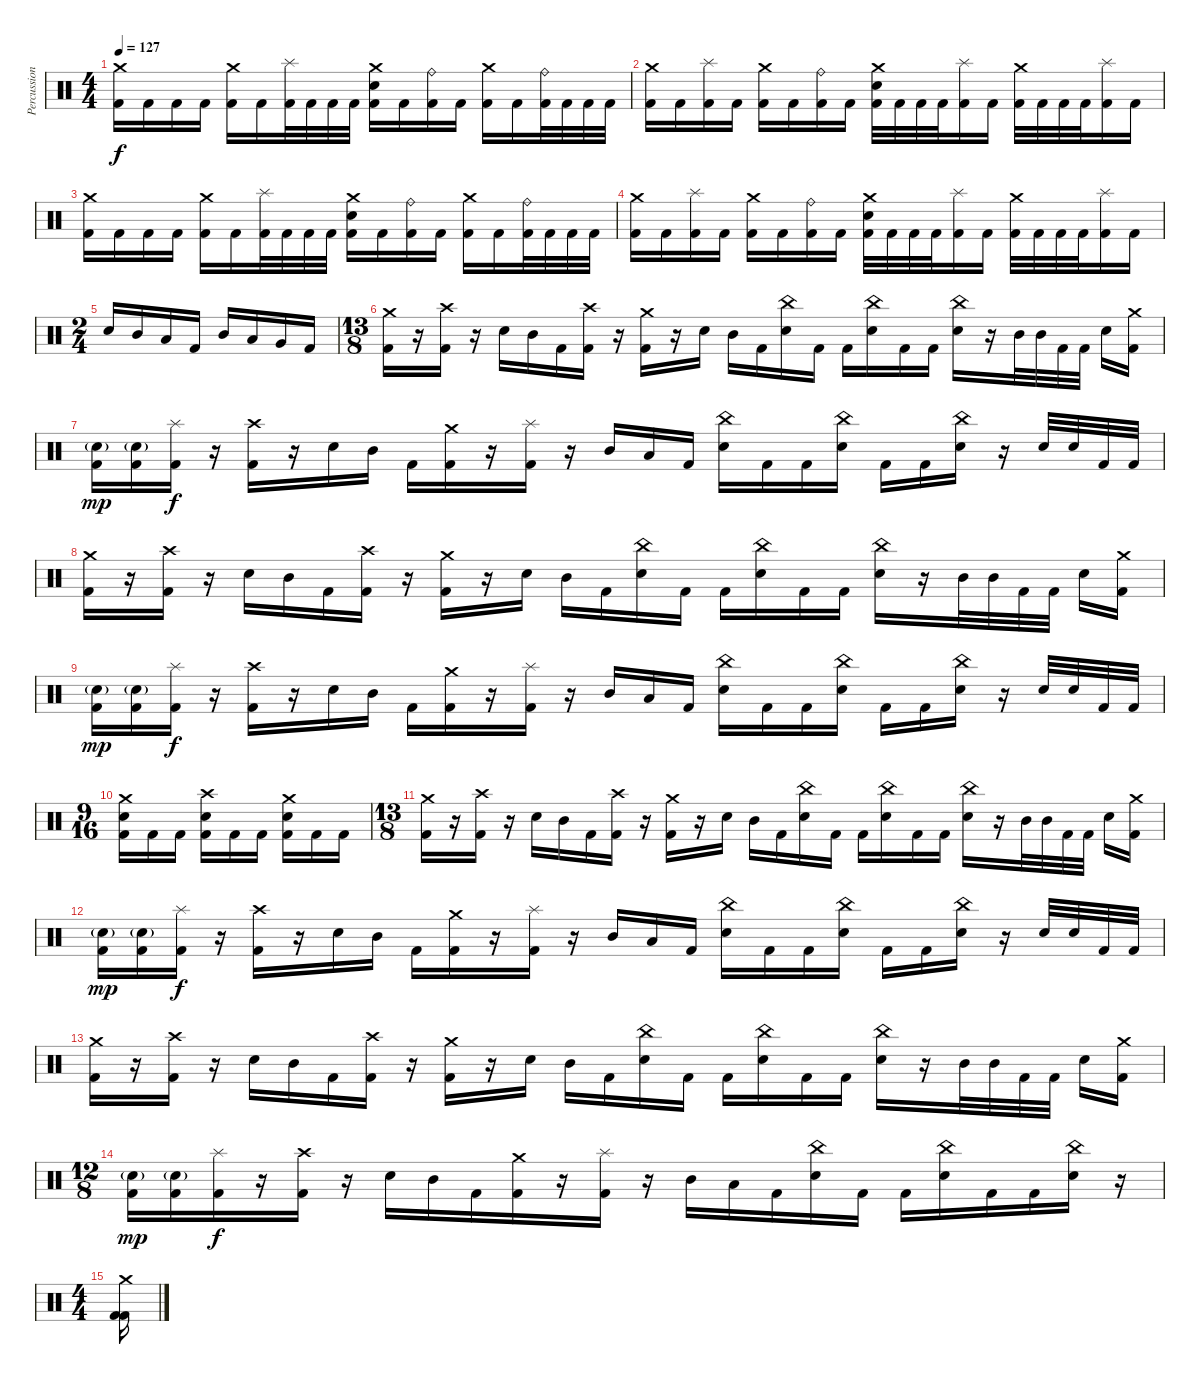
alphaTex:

\track ("Percussion" "Percussion") {instrument percussion}
\staff {score}
\articulation defaults
\ts (4 4)
\tempo 127
\clef neutral
\ks c
("Crash medium (hit)" "Kick (hit) 2").16{dy f} "Kick (hit) 2".16 "Kick (hit) 2".16 "Kick (hit) 2".16 ("Crash medium (hit)" "Kick (hit) 2").16 "Kick (hit) 2".16 ("Splash (hit)" "Kick (hit) 2").32 "Kick (hit) 2".32 "Kick (hit) 2".32 "Kick (hit) 2".32 ("Crash medium (hit)" "Electric Snare (hit)" "Kick (hit) 2").16 "Kick (hit) 2".16 ("Ride (bell)" "Kick (hit) 2").16 "Kick (hit) 2".16 ("Crash medium (hit)" "Kick (hit) 2").16 "Kick (hit) 2".16 ("Ride (bell)" "Kick (hit) 2").32 "Kick (hit) 2".32 "Kick (hit) 2".32 "Kick (hit) 2".32 |
("Crash medium (hit)" "Kick (hit) 2").16 "Kick (hit) 2".16 ("Splash (hit)" "Kick (hit) 2").16 "Kick (hit) 2".16 ("Crash medium (hit)" "Kick (hit) 2").16 "Kick (hit) 2".16 ("Ride (bell)" "Kick (hit) 2").16 "Kick (hit) 2".16 ("Crash medium (hit)" "Electric Snare (hit)" "Kick (hit) 2").32 "Kick (hit) 2".32 "Kick (hit) 2".32 "Kick (hit) 2".32 ("Splash (hit)" "Kick (hit) 2").16 "Kick (hit) 2".16 ("Crash medium (hit)" "Kick (hit) 2").32 "Kick (hit) 2".32 "Kick (hit) 2".32 "Kick (hit) 2".32 ("Splash (hit)" "Kick (hit) 2").16 "Kick (hit) 2".16 |
("Crash medium (hit)" "Kick (hit) 2").16 "Kick (hit) 2".16 "Kick (hit) 2".16 "Kick (hit) 2".16 ("Crash medium (hit)" "Kick (hit) 2").16 "Kick (hit) 2".16 ("Splash (hit)" "Kick (hit) 2").32 "Kick (hit) 2".32 "Kick (hit) 2".32 "Kick (hit) 2".32 ("Crash medium (hit)" "Electric Snare (hit)" "Kick (hit) 2").16 "Kick (hit) 2".16 ("Ride (bell)" "Kick (hit) 2").16 "Kick (hit) 2".16 ("Crash medium (hit)" "Kick (hit) 2").16 "Kick (hit) 2".16 ("Ride (bell)" "Kick (hit) 2").32 "Kick (hit) 2".32 "Kick (hit) 2".32 "Kick (hit) 2".32 |
("Crash medium (hit)" "Kick (hit) 2").16 "Kick (hit) 2".16 ("Splash (hit)" "Kick (hit) 2").16 "Kick (hit) 2".16 ("Crash medium (hit)" "Kick (hit) 2").16 "Kick (hit) 2".16 ("Ride (bell)" "Kick (hit) 2").16 "Kick (hit) 2".16 ("Crash medium (hit)" "Electric Snare (hit)" "Kick (hit) 2").32 "Kick (hit) 2".32 "Kick (hit) 2".32 "Kick (hit) 2".32 ("Splash (hit)" "Kick (hit) 2").16 "Kick (hit) 2".16 ("Crash medium (hit)" "Kick (hit) 2").32 "Kick (hit) 2".32 "Kick (hit) 2".32 "Kick (hit) 2".32 ("Splash (hit)" "Kick (hit) 2").16 "Kick (hit) 2".16 |
\ts (2 4)
"Snare (hit) 2".16 "Mid Tom (hit)".16 "Low Tom (hit)".16 "Kick (hit) 2".16 "Mid Tom (hit)".16 "Low Tom (hit)".16 "Very Low Tom (hit)".16 "Kick (hit) 2".16 |
\ts (13 8)
("Crash medium (hit)" "Kick (hit) 2").16 r.16 ("Crash high (hit)" "Kick (hit) 2").16 r.16 "Snare (hit) 2".16 "Mid Tom (hit)".16 "Kick (hit) 2".16 ("Crash high (hit)" "Kick (hit) 2").16 r.16 ("Crash medium (hit)" "Kick (hit) 2").16 r.16 "Snare (hit) 2".16 "Mid Tom (hit)".16 "Kick (hit) 2".16 ("China (hit)" "Snare (hit) 2").16 "Kick (hit) 2".16 "Kick (hit) 2".16 ("China (hit)" "Snare (hit) 2").16 "Kick (hit) 2".16 "Kick (hit) 2".16 ("China (hit)" "Snare (hit) 2").16 r.16 "Mid Tom (hit)".32 "Mid Tom (hit)".32 "Kick (hit) 2".32 "Kick (hit) 2".32 "Snare (hit) 2".16 ("Crash medium (hit)" "Kick (hit) 2").16 |
("Snare (hit) 2"{g} "Kick (hit) 2").16{dy mp} ("Snare (hit) 2"{g} "Kick (hit) 2").16 ("Splash (hit)" "Kick (hit) 2").16{dy f} r.16 ("Crash high (hit)" "Kick (hit) 2").16 r.16 "Snare (hit) 2".16 "Mid Tom (hit)".16 "Kick (hit) 2".16 ("Crash medium (hit)" "Kick (hit) 2").16 r.16 ("Splash (hit)" "Kick (hit) 2").16 r.16 "Mid Tom (hit)".16 "Low Tom (hit)".16 "Kick (hit) 2".16 ("China (hit)" "Snare (hit) 2").16 "Kick (hit) 2".16 "Kick (hit) 2".16 ("China (hit)" "Snare (hit) 2").16 "Kick (hit) 2".16 "Kick (hit) 2".16 ("China (hit)" "Snare (hit) 2").16 r.16 "Snare (hit) 2".32 "Snare (hit) 2".32 "Kick (hit) 2".32 "Kick (hit) 2".32 |
("Crash medium (hit)" "Kick (hit) 2").16 r.16 ("Crash high (hit)" "Kick (hit) 2").16 r.16 "Snare (hit) 2".16 "Mid Tom (hit)".16 "Kick (hit) 2".16 ("Crash high (hit)" "Kick (hit) 2").16 r.16 ("Crash medium (hit)" "Kick (hit) 2").16 r.16 "Snare (hit) 2".16 "Mid Tom (hit)".16 "Kick (hit) 2".16 ("China (hit)" "Snare (hit) 2").16 "Kick (hit) 2".16 "Kick (hit) 2".16 ("China (hit)" "Snare (hit) 2").16 "Kick (hit) 2".16 "Kick (hit) 2".16 ("China (hit)" "Snare (hit) 2").16 r.16 "Mid Tom (hit)".32 "Mid Tom (hit)".32 "Kick (hit) 2".32 "Kick (hit) 2".32 "Snare (hit) 2".16 ("Crash medium (hit)" "Kick (hit) 2").16 |
("Snare (hit) 2"{g} "Kick (hit) 2").16{dy mp} ("Snare (hit) 2"{g} "Kick (hit) 2").16 ("Splash (hit)" "Kick (hit) 2").16{dy f} r.16 ("Crash high (hit)" "Kick (hit) 2").16 r.16 "Snare (hit) 2".16 "Mid Tom (hit)".16 "Kick (hit) 2".16 ("Crash medium (hit)" "Kick (hit) 2").16 r.16 ("Splash (hit)" "Kick (hit) 2").16 r.16 "Mid Tom (hit)".16 "Low Tom (hit)".16 "Kick (hit) 2".16 ("China (hit)" "Snare (hit) 2").16 "Kick (hit) 2".16 "Kick (hit) 2".16 ("China (hit)" "Snare (hit) 2").16 "Kick (hit) 2".16 "Kick (hit) 2".16 ("China (hit)" "Snare (hit) 2").16 r.16 "Snare (hit) 2".32 "Snare (hit) 2".32 "Kick (hit) 2".32 "Kick (hit) 2".32 |
\ts (9 16)
("Crash medium (hit)" "Snare (hit) 2" "Kick (hit) 2").16 "Kick (hit) 2".16 "Kick (hit) 2".16 ("Crash high (hit)" "Snare (hit) 2" "Kick (hit) 2").16 "Kick (hit) 2".16 "Kick (hit) 2".16 ("Crash medium (hit)" "Snare (hit) 2" "Kick (hit) 2").16 "Kick (hit) 2".16 "Kick (hit) 2".16 |
\ts (13 8)
("Crash medium (hit)" "Kick (hit) 2").16 r.16 ("Crash high (hit)" "Kick (hit) 2").16 r.16 "Snare (hit) 2".16 "Mid Tom (hit)".16 "Kick (hit) 2".16 ("Crash high (hit)" "Kick (hit) 2").16 r.16 ("Crash medium (hit)" "Kick (hit) 2").16 r.16 "Snare (hit) 2".16 "Mid Tom (hit)".16 "Kick (hit) 2".16 ("China (hit)" "Snare (hit) 2").16 "Kick (hit) 2".16 "Kick (hit) 2".16 ("China (hit)" "Snare (hit) 2").16 "Kick (hit) 2".16 "Kick (hit) 2".16 ("China (hit)" "Snare (hit) 2").16 r.16 "Mid Tom (hit)".32 "Mid Tom (hit)".32 "Kick (hit) 2".32 "Kick (hit) 2".32 "Snare (hit) 2".16 ("Crash medium (hit)" "Kick (hit) 2").16 |
("Snare (hit) 2"{g} "Kick (hit) 2").16{dy mp} ("Snare (hit) 2"{g} "Kick (hit) 2").16 ("Splash (hit)" "Kick (hit) 2").16{dy f} r.16 ("Crash high (hit)" "Kick (hit) 2").16 r.16 "Snare (hit) 2".16 "Mid Tom (hit)".16 "Kick (hit) 2".16 ("Crash medium (hit)" "Kick (hit) 2").16 r.16 ("Splash (hit)" "Kick (hit) 2").16 r.16 "Mid Tom (hit)".16 "Low Tom (hit)".16 "Kick (hit) 2".16 ("China (hit)" "Snare (hit) 2").16 "Kick (hit) 2".16 "Kick (hit) 2".16 ("China (hit)" "Snare (hit) 2").16 "Kick (hit) 2".16 "Kick (hit) 2".16 ("China (hit)" "Snare (hit) 2").16 r.16 "Snare (hit) 2".32 "Snare (hit) 2".32 "Kick (hit) 2".32 "Kick (hit) 2".32 |
("Crash medium (hit)" "Kick (hit) 2").16 r.16 ("Crash high (hit)" "Kick (hit) 2").16 r.16 "Snare (hit) 2".16 "Mid Tom (hit)".16 "Kick (hit) 2".16 ("Crash high (hit)" "Kick (hit) 2").16 r.16 ("Crash medium (hit)" "Kick (hit) 2").16 r.16 "Snare (hit) 2".16 "Mid Tom (hit)".16 "Kick (hit) 2".16 ("China (hit)" "Snare (hit) 2").16 "Kick (hit) 2".16 "Kick (hit) 2".16 ("China (hit)" "Snare (hit) 2").16 "Kick (hit) 2".16 "Kick (hit) 2".16 ("China (hit)" "Snare (hit) 2").16 r.16 "Mid Tom (hit)".32 "Mid Tom (hit)".32 "Kick (hit) 2".32 "Kick (hit) 2".32 "Snare (hit) 2".16 ("Crash medium (hit)" "Kick (hit) 2").16 |
\ts (12 8)
("Snare (hit) 2"{g} "Kick (hit) 2").16{dy mp} ("Snare (hit) 2"{g} "Kick (hit) 2").16 ("Splash (hit)" "Kick (hit) 2").16{dy f} r.16 ("Crash high (hit)" "Kick (hit) 2").16 r.16 "Snare (hit) 2".16 "Mid Tom (hit)".16 "Kick (hit) 2".16 ("Crash medium (hit)" "Kick (hit) 2").16 r.16 ("Splash (hit)" "Kick (hit) 2").16 r.16 "Mid Tom (hit)".16 "Low Tom (hit)".16 "Kick (hit) 2".16 ("China (hit)" "Snare (hit) 2").16 "Kick (hit) 2".16 "Kick (hit) 2".16 ("China (hit)" "Snare (hit) 2").16 "Kick (hit) 2".16 "Kick (hit) 2".16 ("China (hit)" "Snare (hit) 2").16 r.16 |
\ts (4 4)
("Crash medium (hit)" "Kick (hit) 2" "Kick (hit) 2").16
